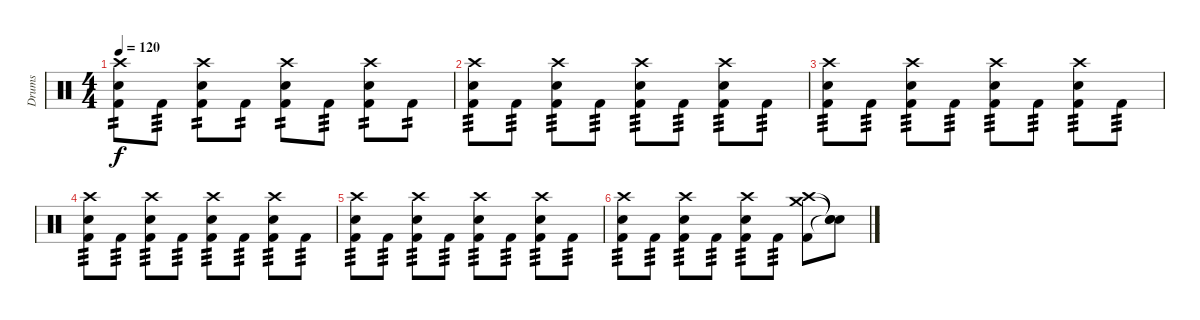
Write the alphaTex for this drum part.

\track ("Drums" "Drums") {instrument percussion}
\staff {score}
\articulation defaults
\ts (4 4)
\tempo 120
\clef neutral
\ks c
("Crash high (hit)" "Snare (hit) 2" "Kick (hit) 2").8{tp 2 dy f} "Kick (hit) 2".8{tp 3} ("Crash high (hit)" "Snare (hit) 2" "Kick (hit) 2").8{tp 2} "Kick (hit) 2".8{tp 2} ("Crash high (hit)" "Snare (hit) 2" "Kick (hit) 2").8{tp 2} "Kick (hit) 2".8{tp 3} ("Crash high (hit)" "Snare (hit) 2" "Kick (hit) 2").8{tp 2} "Kick (hit) 2".8{tp 2} |
("Crash high (hit)" "Snare (hit) 2" "Kick (hit) 2").8{tp 3} "Kick (hit) 2".8{tp 3} ("Crash high (hit)" "Snare (hit) 2" "Kick (hit) 2").8{tp 3} "Kick (hit) 2".8{tp 3} ("Crash high (hit)" "Snare (hit) 2" "Kick (hit) 2").8{tp 3} "Kick (hit) 2".8{tp 3} ("Crash high (hit)" "Snare (hit) 2" "Kick (hit) 2").8{tp 3} "Kick (hit) 2".8{tp 3} |
("Crash high (hit)" "Snare (hit) 2" "Kick (hit) 2").8{tp 3} "Kick (hit) 2".8{tp 3} ("Crash high (hit)" "Snare (hit) 2" "Kick (hit) 2").8{tp 3} "Kick (hit) 2".8{tp 3} ("Crash high (hit)" "Snare (hit) 2" "Kick (hit) 2").8{tp 3} "Kick (hit) 2".8{tp 3} ("Crash high (hit)" "Snare (hit) 2" "Kick (hit) 2").8{tp 3} "Kick (hit) 2".8{tp 3} |
("Crash high (hit)" "Snare (hit) 2" "Kick (hit) 2").8{tp 3} "Kick (hit) 2".8{tp 3} ("Crash high (hit)" "Snare (hit) 2" "Kick (hit) 2").8{tp 3} "Kick (hit) 2".8{tp 3} ("Crash high (hit)" "Snare (hit) 2" "Kick (hit) 2").8{tp 3} "Kick (hit) 2".8{tp 3} ("Crash high (hit)" "Snare (hit) 2" "Kick (hit) 2").8{tp 3} "Kick (hit) 2".8{tp 3} |
("Crash high (hit)" "Snare (hit) 2" "Kick (hit) 2").8{tp 3} "Kick (hit) 2".8{tp 3} ("Crash high (hit)" "Snare (hit) 2" "Kick (hit) 2").8{tp 3} "Kick (hit) 2".8{tp 3} ("Crash high (hit)" "Snare (hit) 2" "Kick (hit) 2").8{tp 3} "Kick (hit) 2".8{tp 3} ("Crash high (hit)" "Snare (hit) 2" "Kick (hit) 2").8{tp 3} "Kick (hit) 2".8{tp 3} |
("Crash high (hit)" "Snare (hit) 2" "Kick (hit) 2").8{tp 3} "Kick (hit) 2".8{tp 3} ("Crash high (hit)" "Snare (hit) 2" "Kick (hit) 2").8{tp 3} "Kick (hit) 2".8{tp 3} ("Crash high (hit)" "Snare (hit) 2" "Kick (hit) 2").8{tp 3} "Kick (hit) 2".8{tp 3} ("Crash high (hit)" "Crash medium (hit)" "Kick (hit) 2").8 ("Snare (hit)"{t} "Snare (hit)"{t} "Snare (hit)"{t}).8
